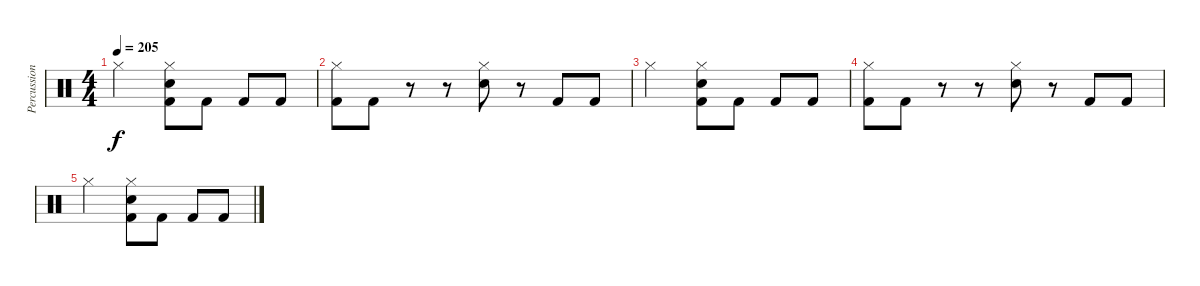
\track ("Percussion" "Percussion") {instrument percussion}
\staff {score}
\articulation defaults
\ts (4 4)
\tempo 205
\clef neutral
\ks c "Hi-Hat (closed)".2{dy f}
("Hi-Hat (closed)" "Electric Snare (hit)" "Kick (hit) 2").8 "Kick (hit) 2".8 "Kick (hit) 2".8 "Kick (hit) 2".8 |
("Hi-Hat (closed)" "Kick (hit) 2").8 "Kick (hit) 2".8 r.8 r.8 ("Hi-Hat (closed)" "Electric Snare (hit)").8 r.8 "Kick (hit) 2".8 "Kick (hit) 2".8 |
"Hi-Hat (closed)".2 ("Hi-Hat (closed)" "Electric Snare (hit)" "Kick (hit) 2").8 "Kick (hit) 2".8 "Kick (hit) 2".8 "Kick (hit) 2".8 |
("Hi-Hat (closed)" "Kick (hit) 2").8 "Kick (hit) 2".8 r.8 r.8 ("Hi-Hat (closed)" "Electric Snare (hit)").8 r.8 "Kick (hit) 2".8 "Kick (hit) 2".8 |
"Hi-Hat (closed)".2 ("Hi-Hat (closed)" "Electric Snare (hit)" "Kick (hit) 2").8 "Kick (hit) 2".8 "Kick (hit) 2".8 "Kick (hit) 2".8
